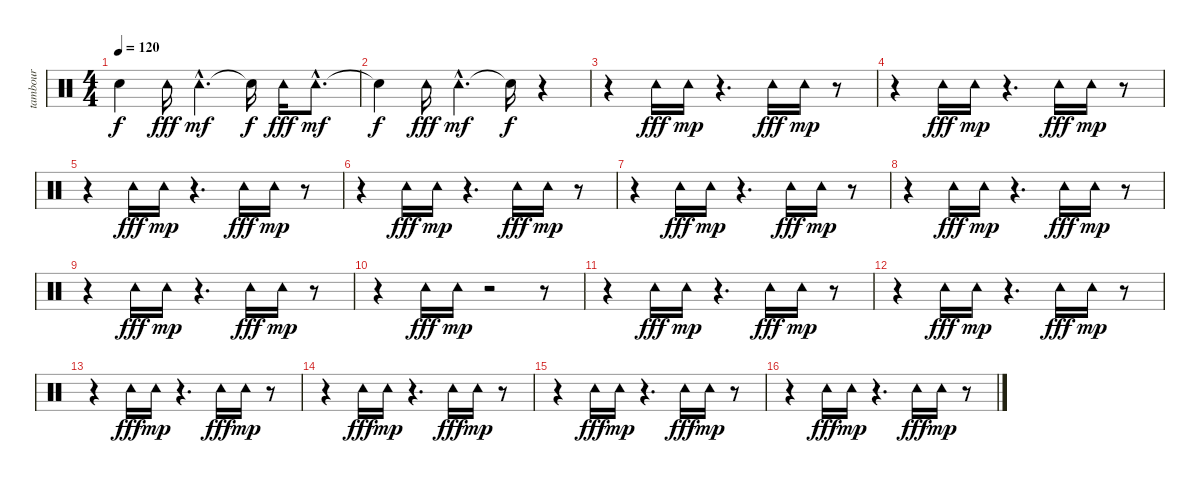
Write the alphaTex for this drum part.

\track ("tambour" "tambour") {instrument percussion}
\staff {score}
\articulation defaults
\ts (4 4)
\tempo 120
\clef neutral
\ks c "Snare (hit)"{t}.4{dy f} "Tambourine (hit)".16{dy fff} "Tambourine (hit)"{hac}.4{d dy mf} "Snare (hit)"{t}.16{dy f} "Tambourine (hit)".16{dy fff} "Tambourine (hit)"{hac}.8{d dy mf}
|
"Snare (hit)"{t}.4{dy f} "Tambourine (hit)".16{dy fff} "Tambourine (hit)"{hac}.4{d dy mf} "Snare (hit)"{t}.16{dy f} r.4 |
r.4 "Tambourine (hit)".16{dy fff} "Tambourine (hit)".16{dy mp} r.4{d} "Tambourine (hit)".16{dy fff} "Tambourine (hit)".16{dy mp} r.8 |
r.4 "Tambourine (hit)".16{dy fff} "Tambourine (hit)".16{dy mp} r.4{d} "Tambourine (hit)".16{dy fff} "Tambourine (hit)".16{dy mp} r.8 |
r.4 "Tambourine (hit)".16{dy fff} "Tambourine (hit)".16{dy mp} r.4{d} "Tambourine (hit)".16{dy fff} "Tambourine (hit)".16{dy mp} r.8 |
r.4 "Tambourine (hit)".16{dy fff} "Tambourine (hit)".16{dy mp} r.4{d} "Tambourine (hit)".16{dy fff} "Tambourine (hit)".16{dy mp} r.8 |
r.4 "Tambourine (hit)".16{dy fff} "Tambourine (hit)".16{dy mp} r.4{d} "Tambourine (hit)".16{dy fff} "Tambourine (hit)".16{dy mp} r.8 |
r.4 "Tambourine (hit)".16{dy fff} "Tambourine (hit)".16{dy mp} r.4{d} "Tambourine (hit)".16{dy fff} "Tambourine (hit)".16{dy mp} r.8 |
r.4 "Tambourine (hit)".16{dy fff} "Tambourine (hit)".16{dy mp} r.4{d} "Tambourine (hit)".16{dy fff} "Tambourine (hit)".16{dy mp} r.8 |
r.4 "Tambourine (hit)".16{dy fff} "Tambourine (hit)".16{dy mp} r.2 r.8 |
r.4 "Tambourine (hit)".16{dy fff} "Tambourine (hit)".16{dy mp} r.4{d} "Tambourine (hit)".16{dy fff} "Tambourine (hit)".16{dy mp} r.8 |
r.4 "Tambourine (hit)".16{dy fff} "Tambourine (hit)".16{dy mp} r.4{d} "Tambourine (hit)".16{dy fff} "Tambourine (hit)".16{dy mp} r.8 |
r.4 "Tambourine (hit)".16{dy fff} "Tambourine (hit)".16{dy mp} r.4{d} "Tambourine (hit)".16{dy fff} "Tambourine (hit)".16{dy mp} r.8 |
r.4 "Tambourine (hit)".16{dy fff} "Tambourine (hit)".16{dy mp} r.4{d} "Tambourine (hit)".16{dy fff} "Tambourine (hit)".16{dy mp} r.8 |
r.4 "Tambourine (hit)".16{dy fff} "Tambourine (hit)".16{dy mp} r.4{d} "Tambourine (hit)".16{dy fff} "Tambourine (hit)".16{dy mp} r.8 |
r.4 "Tambourine (hit)".16{dy fff} "Tambourine (hit)".16{dy mp} r.4{d} "Tambourine (hit)".16{dy fff} "Tambourine (hit)".16{dy mp} r.8
